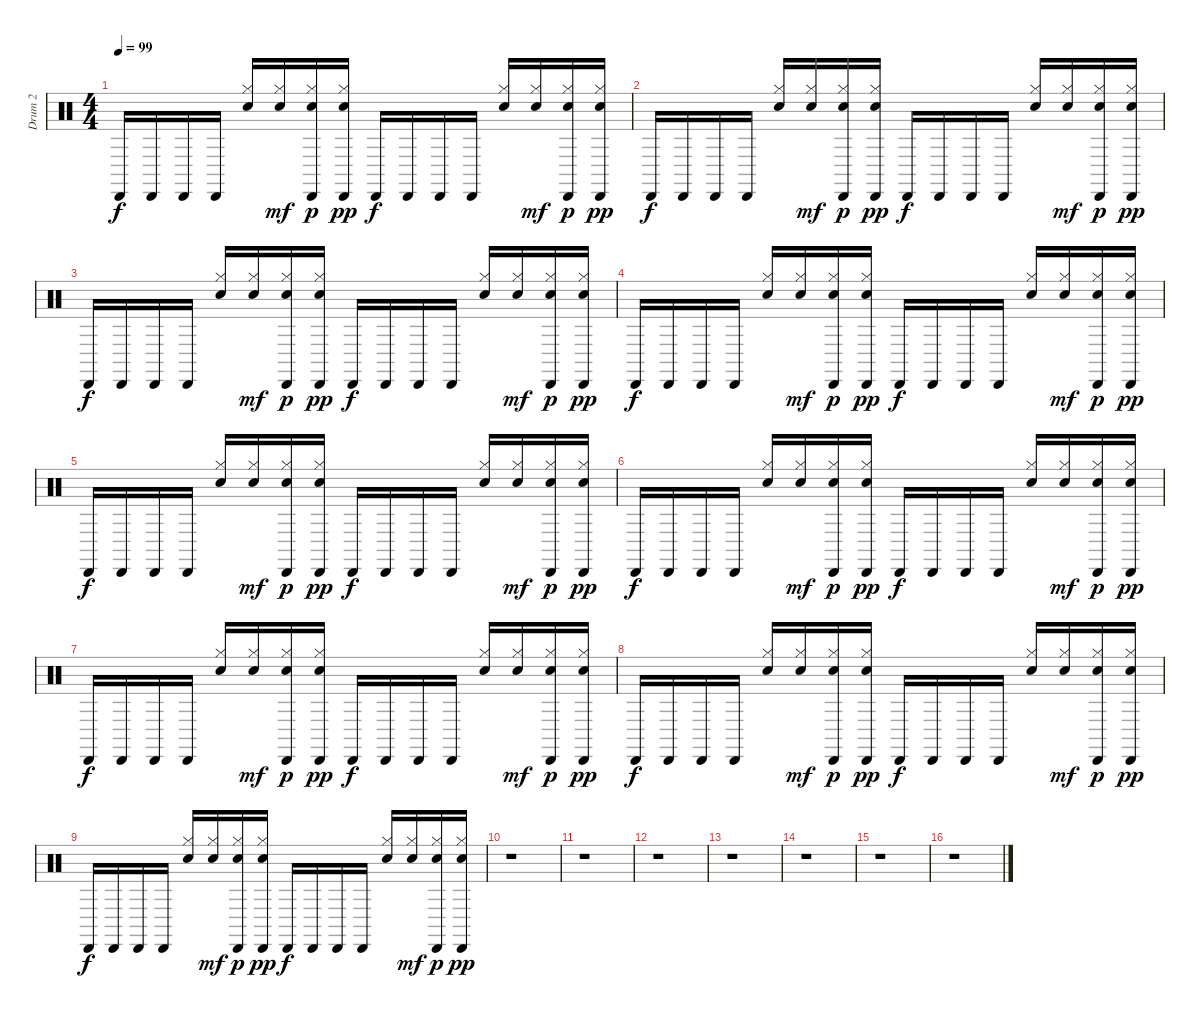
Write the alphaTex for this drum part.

\track ("Drum 2" "Drum 2") {instrument percussion}
\staff {score}
\articulation defaults
\ts (4 4)
\tempo 99
\clef neutral
\ks c "Cabasa (hit)".16{dy f} "Cabasa (hit)".16 "Cabasa (hit)".16 "Cabasa (hit)".16
("Electric Snare (hit)" "Hi-Hat (closed)").16 ("Electric Snare (hit)" "Hi-Hat (closed)").16{dy mf} ("Electric Snare (hit)" "Hi-Hat (closed)" "Cabasa (hit)").16{dy p} ("Electric Snare (hit)" "Hi-Hat (closed)" "Cabasa (hit)").16{dy pp} "Cabasa (hit)".16{dy f} "Cabasa (hit)".16 "Cabasa (hit)".16 "Cabasa (hit)".16 ("Electric Snare (hit)" "Hi-Hat (closed)").16 ("Electric Snare (hit)" "Hi-Hat (closed)").16{dy mf} ("Electric Snare (hit)" "Hi-Hat (closed)" "Cabasa (hit)").16{dy p} ("Electric Snare (hit)" "Hi-Hat (closed)" "Cabasa (hit)").16{dy pp} |
"Cabasa (hit)".16{dy f} "Cabasa (hit)".16 "Cabasa (hit)".16 "Cabasa (hit)".16 ("Electric Snare (hit)" "Hi-Hat (closed)").16 ("Electric Snare (hit)" "Hi-Hat (closed)").16{dy mf} ("Electric Snare (hit)" "Hi-Hat (closed)" "Cabasa (hit)").16{dy p} ("Electric Snare (hit)" "Hi-Hat (closed)" "Cabasa (hit)").16{dy pp} "Cabasa (hit)".16{dy f} "Cabasa (hit)".16 "Cabasa (hit)".16 "Cabasa (hit)".16 ("Electric Snare (hit)" "Hi-Hat (closed)").16 ("Electric Snare (hit)" "Hi-Hat (closed)").16{dy mf} ("Electric Snare (hit)" "Hi-Hat (closed)" "Cabasa (hit)").16{dy p} ("Electric Snare (hit)" "Hi-Hat (closed)" "Cabasa (hit)").16{dy pp} |
"Cabasa (hit)".16{dy f} "Cabasa (hit)".16 "Cabasa (hit)".16 "Cabasa (hit)".16 ("Electric Snare (hit)" "Hi-Hat (closed)").16 ("Electric Snare (hit)" "Hi-Hat (closed)").16{dy mf} ("Electric Snare (hit)" "Hi-Hat (closed)" "Cabasa (hit)").16{dy p} ("Electric Snare (hit)" "Hi-Hat (closed)" "Cabasa (hit)").16{dy pp} "Cabasa (hit)".16{dy f} "Cabasa (hit)".16 "Cabasa (hit)".16 "Cabasa (hit)".16 ("Electric Snare (hit)" "Hi-Hat (closed)").16 ("Electric Snare (hit)" "Hi-Hat (closed)").16{dy mf} ("Electric Snare (hit)" "Hi-Hat (closed)" "Cabasa (hit)").16{dy p} ("Electric Snare (hit)" "Hi-Hat (closed)" "Cabasa (hit)").16{dy pp} |
"Cabasa (hit)".16{dy f} "Cabasa (hit)".16 "Cabasa (hit)".16 "Cabasa (hit)".16 ("Electric Snare (hit)" "Hi-Hat (closed)").16 ("Electric Snare (hit)" "Hi-Hat (closed)").16{dy mf} ("Electric Snare (hit)" "Hi-Hat (closed)" "Cabasa (hit)").16{dy p} ("Electric Snare (hit)" "Hi-Hat (closed)" "Cabasa (hit)").16{dy pp} "Cabasa (hit)".16{dy f} "Cabasa (hit)".16 "Cabasa (hit)".16 "Cabasa (hit)".16 ("Electric Snare (hit)" "Hi-Hat (closed)").16 ("Electric Snare (hit)" "Hi-Hat (closed)").16{dy mf} ("Electric Snare (hit)" "Hi-Hat (closed)" "Cabasa (hit)").16{dy p} ("Electric Snare (hit)" "Hi-Hat (closed)" "Cabasa (hit)").16{dy pp} |
"Cabasa (hit)".16{dy f} "Cabasa (hit)".16 "Cabasa (hit)".16 "Cabasa (hit)".16 ("Electric Snare (hit)" "Hi-Hat (closed)").16 ("Electric Snare (hit)" "Hi-Hat (closed)").16{dy mf} ("Electric Snare (hit)" "Hi-Hat (closed)" "Cabasa (hit)").16{dy p} ("Electric Snare (hit)" "Hi-Hat (closed)" "Cabasa (hit)").16{dy pp} "Cabasa (hit)".16{dy f} "Cabasa (hit)".16 "Cabasa (hit)".16 "Cabasa (hit)".16 ("Electric Snare (hit)" "Hi-Hat (closed)").16 ("Electric Snare (hit)" "Hi-Hat (closed)").16{dy mf} ("Electric Snare (hit)" "Hi-Hat (closed)" "Cabasa (hit)").16{dy p} ("Electric Snare (hit)" "Hi-Hat (closed)" "Cabasa (hit)").16{dy pp} |
"Cabasa (hit)".16{dy f} "Cabasa (hit)".16 "Cabasa (hit)".16 "Cabasa (hit)".16 ("Electric Snare (hit)" "Hi-Hat (closed)").16 ("Electric Snare (hit)" "Hi-Hat (closed)").16{dy mf} ("Electric Snare (hit)" "Hi-Hat (closed)" "Cabasa (hit)").16{dy p} ("Electric Snare (hit)" "Hi-Hat (closed)" "Cabasa (hit)").16{dy pp} "Cabasa (hit)".16{dy f} "Cabasa (hit)".16 "Cabasa (hit)".16 "Cabasa (hit)".16 ("Electric Snare (hit)" "Hi-Hat (closed)").16 ("Electric Snare (hit)" "Hi-Hat (closed)").16{dy mf} ("Electric Snare (hit)" "Hi-Hat (closed)" "Cabasa (hit)").16{dy p} ("Electric Snare (hit)" "Hi-Hat (closed)" "Cabasa (hit)").16{dy pp} |
"Cabasa (hit)".16{dy f} "Cabasa (hit)".16 "Cabasa (hit)".16 "Cabasa (hit)".16 ("Electric Snare (hit)" "Hi-Hat (closed)").16 ("Electric Snare (hit)" "Hi-Hat (closed)").16{dy mf} ("Electric Snare (hit)" "Hi-Hat (closed)" "Cabasa (hit)").16{dy p} ("Electric Snare (hit)" "Hi-Hat (closed)" "Cabasa (hit)").16{dy pp} "Cabasa (hit)".16{dy f} "Cabasa (hit)".16 "Cabasa (hit)".16 "Cabasa (hit)".16 ("Electric Snare (hit)" "Hi-Hat (closed)").16 ("Electric Snare (hit)" "Hi-Hat (closed)").16{dy mf} ("Electric Snare (hit)" "Hi-Hat (closed)" "Cabasa (hit)").16{dy p} ("Electric Snare (hit)" "Hi-Hat (closed)" "Cabasa (hit)").16{dy pp} |
"Cabasa (hit)".16{dy f} "Cabasa (hit)".16 "Cabasa (hit)".16 "Cabasa (hit)".16 ("Electric Snare (hit)" "Hi-Hat (closed)").16 ("Electric Snare (hit)" "Hi-Hat (closed)").16{dy mf} ("Electric Snare (hit)" "Hi-Hat (closed)" "Cabasa (hit)").16{dy p} ("Electric Snare (hit)" "Hi-Hat (closed)" "Cabasa (hit)").16{dy pp} "Cabasa (hit)".16{dy f} "Cabasa (hit)".16 "Cabasa (hit)".16 "Cabasa (hit)".16 ("Electric Snare (hit)" "Hi-Hat (closed)").16 ("Electric Snare (hit)" "Hi-Hat (closed)").16{dy mf} ("Electric Snare (hit)" "Hi-Hat (closed)" "Cabasa (hit)").16{dy p} ("Electric Snare (hit)" "Hi-Hat (closed)" "Cabasa (hit)").16{dy pp} |
"Cabasa (hit)".16{dy f} "Cabasa (hit)".16 "Cabasa (hit)".16 "Cabasa (hit)".16 ("Electric Snare (hit)" "Hi-Hat (closed)").16 ("Electric Snare (hit)" "Hi-Hat (closed)").16{dy mf} ("Electric Snare (hit)" "Hi-Hat (closed)" "Cabasa (hit)").16{dy p} ("Electric Snare (hit)" "Hi-Hat (closed)" "Cabasa (hit)").16{dy pp} "Cabasa (hit)".16{dy f} "Cabasa (hit)".16 "Cabasa (hit)".16 "Cabasa (hit)".16 ("Electric Snare (hit)" "Hi-Hat (closed)").16 ("Electric Snare (hit)" "Hi-Hat (closed)").16{dy mf} ("Electric Snare (hit)" "Hi-Hat (closed)" "Cabasa (hit)").16{dy p} ("Electric Snare (hit)" "Hi-Hat (closed)" "Cabasa (hit)").16{dy pp} |
r.1 |
r.1 |
r.1 |
r.1 |
r.1 |
r.1 |
r.1
